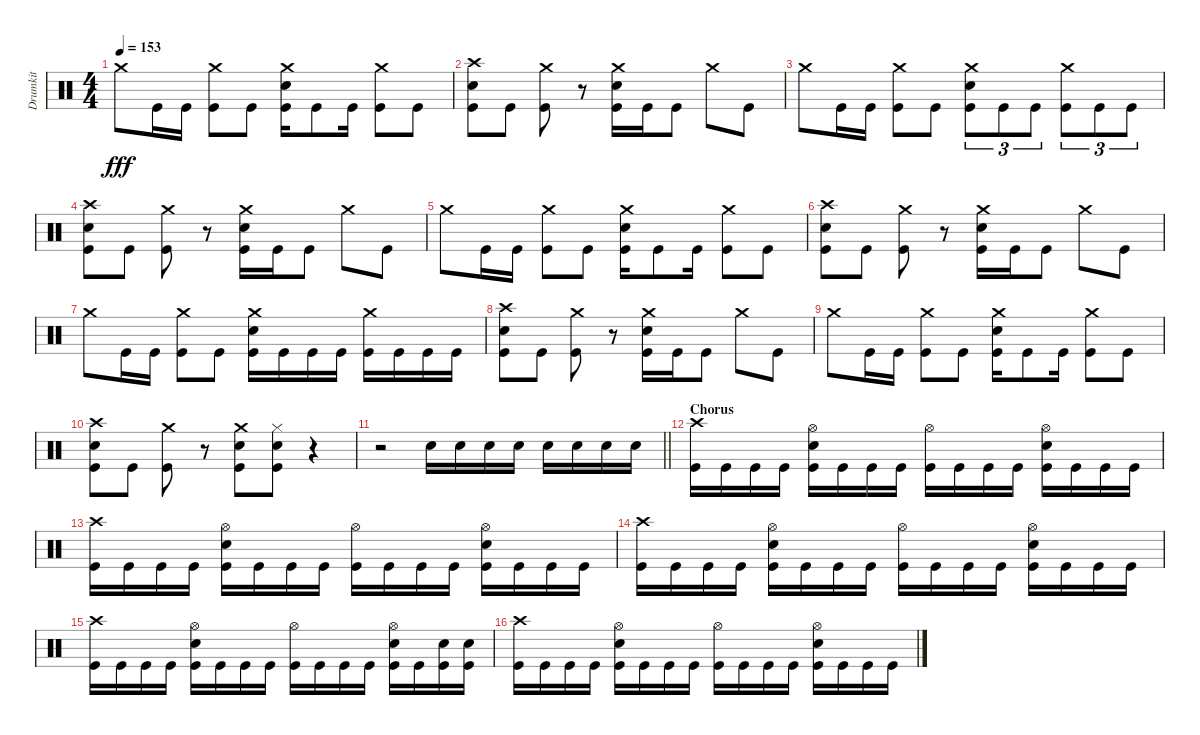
\track ("Drumkit" "Drumkit") {instrument percussion}
\staff {score}
\articulation defaults
\ts (4 4)
\tempo 153
\clef neutral
\ks c "Crash medium (hit)".8{dy fff} "Kick (hit)".16 "Kick (hit)".16
("Crash medium (hit)" "Kick (hit)").8 "Kick (hit)".8 ("Snare (hit) 2" "Crash medium (hit)" "Kick (hit)").16 "Kick (hit)".8 "Kick (hit)".16 ("Crash medium (hit)" "Kick (hit)").8 "Kick (hit)".8 |
("Crash high (hit)" "Snare (hit) 2" "Kick (hit)").8 "Kick (hit)".8 ("Crash medium (hit)" "Kick (hit)").8 r.8 ("Snare (hit) 2" "Crash medium (hit)" "Kick (hit)").16 "Kick (hit)".16 "Kick (hit)".8 "Crash medium (hit)".8 "Kick (hit)".8 |
"Crash medium (hit)".8 "Kick (hit)".16 "Kick (hit)".16 ("Crash medium (hit)" "Kick (hit)").8 "Kick (hit)".8 ("Snare (hit) 2" "Crash medium (hit)" "Kick (hit)").8{tu (3 2)} "Kick (hit)".8{tu (3 2)} "Kick (hit)".8{tu (3 2)} ("Crash medium (hit)" "Kick (hit)").8{tu (3 2)} "Kick (hit)".8{tu (3 2)} "Kick (hit)".8{tu (3 2)} |
("Crash high (hit)" "Snare (hit) 2" "Kick (hit)").8 "Kick (hit)".8 ("Crash medium (hit)" "Kick (hit)").8 r.8 ("Snare (hit) 2" "Crash medium (hit)" "Kick (hit)").16 "Kick (hit)".16 "Kick (hit)".8 "Crash medium (hit)".8 "Kick (hit)".8 |
"Crash medium (hit)".8 "Kick (hit)".16 "Kick (hit)".16 ("Crash medium (hit)" "Kick (hit)").8 "Kick (hit)".8 ("Snare (hit) 2" "Crash medium (hit)" "Kick (hit)").16 "Kick (hit)".8 "Kick (hit)".16 ("Crash medium (hit)" "Kick (hit)").8 "Kick (hit)".8 |
("Crash high (hit)" "Snare (hit) 2" "Kick (hit)").8 "Kick (hit)".8 ("Crash medium (hit)" "Kick (hit)").8 r.8 ("Snare (hit) 2" "Crash medium (hit)" "Kick (hit)").16 "Kick (hit)".16 "Kick (hit)".8 "Crash medium (hit)".8 "Kick (hit)".8 |
"Crash medium (hit)".8 "Kick (hit)".16 "Kick (hit)".16 ("Crash medium (hit)" "Kick (hit)").8 "Kick (hit)".8 ("Snare (hit) 2" "Crash medium (hit)" "Kick (hit)").16 "Kick (hit)".16 "Kick (hit)".16 "Kick (hit)".16 ("Crash medium (hit)" "Kick (hit)").16 "Kick (hit)".16 "Kick (hit)".16 "Kick (hit)".16 |
("Crash high (hit)" "Snare (hit) 2" "Kick (hit)").8 "Kick (hit)".8 ("Crash medium (hit)" "Kick (hit)").8 r.8 ("Snare (hit) 2" "Crash medium (hit)" "Kick (hit)").16 "Kick (hit)".16 "Kick (hit)".8 "Crash medium (hit)".8 "Kick (hit)".8 |
"Crash medium (hit)".8 "Kick (hit)".16 "Kick (hit)".16 ("Crash medium (hit)" "Kick (hit)").8 "Kick (hit)".8 ("Snare (hit) 2" "Crash medium (hit)" "Kick (hit)").16 "Kick (hit)".8 "Kick (hit)".16 ("Crash medium (hit)" "Kick (hit)").8 "Kick (hit)".8 |
("Crash high (hit)" "Snare (hit) 2" "Kick (hit)").8 "Kick (hit)".8 ("Crash medium (hit)" "Kick (hit)").8 r.8 ("Snare (hit) 2" "Crash medium (hit)" "Kick (hit)").8 ("Snare (hit) 2" "Hi-Hat (closed)" "Kick (hit)").8 r.4 |
\barLineRight lightlight
r.2 "Snare (hit) 2".16 "Snare (hit) 2".16 "Snare (hit) 2".16 "Snare (hit) 2".16 "Snare (hit) 2".16 "Snare (hit) 2".16 "Snare (hit) 2".16 "Snare (hit) 2".16 |
\section ("" "Chorus")
("Crash high (hit)" "Kick (hit)").16 "Kick (hit)".16 "Kick (hit)".16 "Kick (hit)".16 ("Hi-Hat (open)" "Snare (hit) 2" "Kick (hit)").16 "Kick (hit)".16 "Kick (hit)".16 "Kick (hit)".16 ("Hi-Hat (open)" "Kick (hit)").16 "Kick (hit)".16 "Kick (hit)".16 "Kick (hit)".16 ("Hi-Hat (open)" "Snare (hit) 2" "Kick (hit)").16 "Kick (hit)".16 "Kick (hit)".16 "Kick (hit)".16 |
("Crash high (hit)" "Kick (hit)").16 "Kick (hit)".16 "Kick (hit)".16 "Kick (hit)".16 ("Hi-Hat (open)" "Snare (hit) 2" "Kick (hit)").16 "Kick (hit)".16 "Kick (hit)".16 "Kick (hit)".16 ("Hi-Hat (open)" "Kick (hit)").16 "Kick (hit)".16 "Kick (hit)".16 "Kick (hit)".16 ("Hi-Hat (open)" "Snare (hit) 2" "Kick (hit)").16 "Kick (hit)".16 "Kick (hit)".16 "Kick (hit)".16 |
("Crash high (hit)" "Kick (hit)").16 "Kick (hit)".16 "Kick (hit)".16 "Kick (hit)".16 ("Hi-Hat (open)" "Snare (hit) 2" "Kick (hit)").16 "Kick (hit)".16 "Kick (hit)".16 "Kick (hit)".16 ("Hi-Hat (open)" "Kick (hit)").16 "Kick (hit)".16 "Kick (hit)".16 "Kick (hit)".16 ("Hi-Hat (open)" "Snare (hit) 2" "Kick (hit)").16 "Kick (hit)".16 "Kick (hit)".16 "Kick (hit)".16 |
("Crash high (hit)" "Kick (hit)").16 "Kick (hit)".16 "Kick (hit)".16 "Kick (hit)".16 ("Hi-Hat (open)" "Snare (hit) 2" "Kick (hit)").16 "Kick (hit)".16 "Kick (hit)".16 "Kick (hit)".16 ("Hi-Hat (open)" "Kick (hit)").16 "Kick (hit)".16 "Kick (hit)".16 "Kick (hit)".16 ("Hi-Hat (open)" "Snare (hit) 2" "Kick (hit)").16 "Kick (hit)".16 ("Snare (hit) 2" "Kick (hit)").16 ("Snare (hit) 2" "Kick (hit)").16 |
("Crash high (hit)" "Kick (hit)").16 "Kick (hit)".16 "Kick (hit)".16 "Kick (hit)".16 ("Hi-Hat (open)" "Snare (hit) 2" "Kick (hit)").16 "Kick (hit)".16 "Kick (hit)".16 "Kick (hit)".16 ("Hi-Hat (open)" "Kick (hit)").16 "Kick (hit)".16 "Kick (hit)".16 "Kick (hit)".16 ("Hi-Hat (open)" "Snare (hit) 2" "Kick (hit)").16 "Kick (hit)".16 "Kick (hit)".16 "Kick (hit)".16
